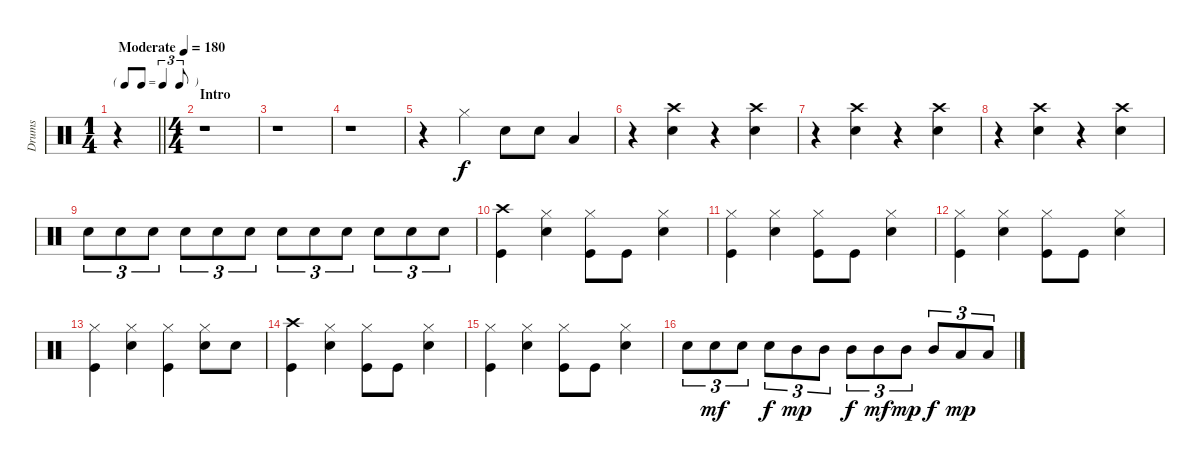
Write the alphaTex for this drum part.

\track ("Drums" "Drums") {instrument percussion}
\staff {score}
\articulation defaults
\ts (1 4)
\tf triplet8th
\tempo (180 "Moderate")
\clef neutral
\barLineRight lightlight
\ks c
r.4{dy f} |
\ts (4 4)
\section ("" "Intro")
r.1 |
r.1 |
r.1 |
r.4 "Hi-Hat (closed)".4 "Snare (hit) 2".8 "Snare (hit) 2".8 "Low Tom (hit)".4 |
r.4 ("Crash high (hit)" "Snare (hit) 2").4 r.4 ("Snare (hit) 2" "Crash high (hit)").4 |
r.4 ("Snare (hit) 2" "Crash high (hit)").4 r.4 ("Snare (hit) 2" "Crash high (hit)").4 |
r.4 ("Crash high (hit)" "Snare (hit) 2").4 r.4 ("Snare (hit) 2" "Crash high (hit)").4 |
"Snare (hit) 2".8{tu (3 2)} "Snare (hit) 2".8{tu (3 2)} "Snare (hit) 2".8{tu (3 2)} "Snare (hit) 2".8{tu (3 2)} "Snare (hit) 2".8{tu (3 2)} "Snare (hit) 2".8{tu (3 2)} "Snare (hit) 2".8{tu (3 2)} "Snare (hit) 2".8{tu (3 2)} "Snare (hit) 2".8{tu (3 2)} "Snare (hit) 2".8{tu (3 2)} "Snare (hit) 2".8{tu (3 2)} "Snare (hit) 2".8{tu (3 2)} |
("Crash high (hit)" "Kick (hit)").4 ("Snare (hit) 2" "Hi-Hat (closed)").4 ("Kick (hit)" "Hi-Hat (closed)").8 "Kick (hit)".8 ("Snare (hit) 2" "Hi-Hat (closed)").4 |
("Hi-Hat (closed)" "Kick (hit)").4 ("Snare (hit) 2" "Hi-Hat (closed)").4 ("Kick (hit)" "Hi-Hat (closed)").8 "Kick (hit)".8 ("Snare (hit) 2" "Hi-Hat (closed)").4 |
("Hi-Hat (closed)" "Kick (hit)").4 ("Snare (hit) 2" "Hi-Hat (closed)").4 ("Kick (hit)" "Hi-Hat (closed)").8 "Kick (hit)".8 ("Snare (hit) 2" "Hi-Hat (closed)").4 |
("Hi-Hat (closed)" "Kick (hit)").4 ("Snare (hit) 2" "Hi-Hat (closed)").4 ("Kick (hit)" "Hi-Hat (closed)").4 ("Snare (hit) 2" "Hi-Hat (closed)").8 "Snare (hit) 2".8 |
("Crash high (hit)" "Kick (hit)").4 ("Snare (hit) 2" "Hi-Hat (closed)").4 ("Kick (hit)" "Hi-Hat (closed)").8 "Kick (hit)".8 ("Snare (hit) 2" "Hi-Hat (closed)").4 |
("Hi-Hat (closed)" "Kick (hit)").4 ("Snare (hit) 2" "Hi-Hat (closed)").4 ("Kick (hit)" "Hi-Hat (closed)").8 "Kick (hit)".8 ("Snare (hit) 2" "Hi-Hat (closed)").4 |
"Snare (hit) 2".8{tu (3 2)} "Snare (hit) 2".8{tu (3 2) dy mf} "Snare (hit) 2".8{tu (3 2)} "Snare (hit) 2".8{tu (3 2) dy f} "Mid Tom (hit)".8{tu (3 2) dy mp} "Mid Tom (hit)".8{tu (3 2)} "Mid Tom (hit)".8{tu (3 2) dy f} "Mid Tom (hit)".8{tu (3 2) dy mf} "Mid Tom (hit)".8{tu (3 2) dy mp} "Mid Tom (hit)".8{tu (3 2) dy f} "Low Tom (hit)".8{tu (3 2) dy mp} "Low Tom (hit)".8{tu (3 2)}
